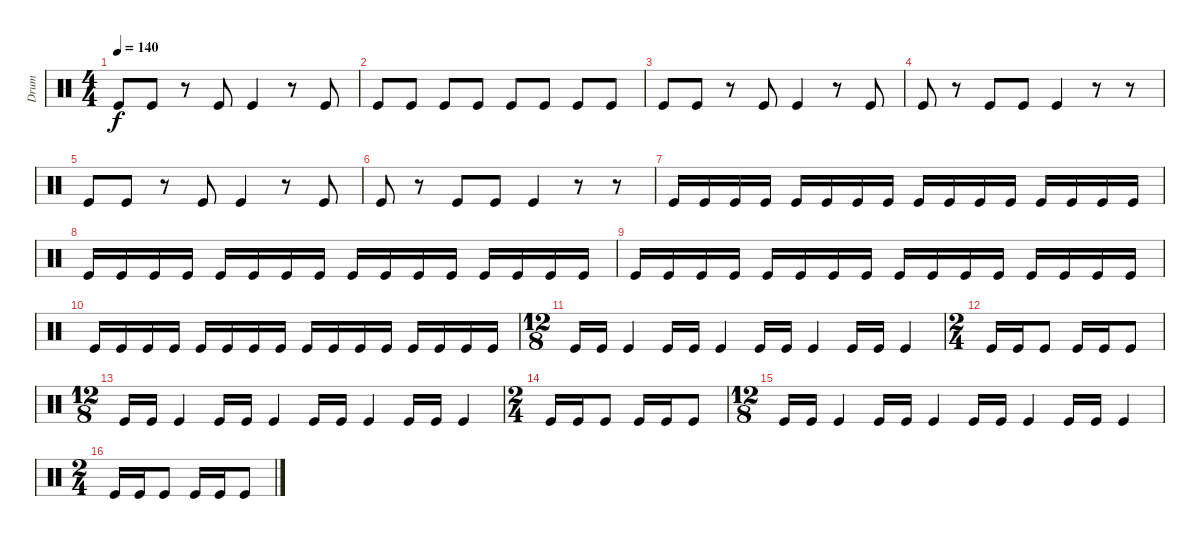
\track ("Drum" "Drum") {instrument percussion}
\staff {score}
\articulation defaults
\ts (4 4)
\tempo 140
\clef neutral
\ks c "Kick (hit)".8{dy f} "Kick (hit)".8
r.8 "Kick (hit)".8 "Kick (hit)".4 r.8 "Kick (hit)".8 |
"Kick (hit)".8 "Kick (hit)".8 "Kick (hit)".8 "Kick (hit)".8 "Kick (hit)".8 "Kick (hit)".8 "Kick (hit)".8 "Kick (hit)".8 |
"Kick (hit)".8 "Kick (hit)".8 r.8 "Kick (hit)".8 "Kick (hit)".4 r.8 "Kick (hit)".8 |
"Kick (hit)".8 r.8 "Kick (hit)".8 "Kick (hit)".8 "Kick (hit)".4 r.8 r.8 |
"Kick (hit)".8 "Kick (hit)".8 r.8 "Kick (hit)".8 "Kick (hit)".4 r.8 "Kick (hit)".8 |
"Kick (hit)".8 r.8 "Kick (hit)".8 "Kick (hit)".8 "Kick (hit)".4 r.8 r.8 |
"Kick (hit)".16 "Kick (hit)".16 "Kick (hit)".16 "Kick (hit)".16 "Kick (hit)".16 "Kick (hit)".16 "Kick (hit)".16 "Kick (hit)".16 "Kick (hit)".16 "Kick (hit)".16 "Kick (hit)".16 "Kick (hit)".16 "Kick (hit)".16 "Kick (hit)".16 "Kick (hit)".16 "Kick (hit)".16 |
"Kick (hit)".16 "Kick (hit)".16 "Kick (hit)".16 "Kick (hit)".16 "Kick (hit)".16 "Kick (hit)".16 "Kick (hit)".16 "Kick (hit)".16 "Kick (hit)".16 "Kick (hit)".16 "Kick (hit)".16 "Kick (hit)".16 "Kick (hit)".16 "Kick (hit)".16 "Kick (hit)".16 "Kick (hit)".16 |
"Kick (hit)".16 "Kick (hit)".16 "Kick (hit)".16 "Kick (hit)".16 "Kick (hit)".16 "Kick (hit)".16 "Kick (hit)".16 "Kick (hit)".16 "Kick (hit)".16 "Kick (hit)".16 "Kick (hit)".16 "Kick (hit)".16 "Kick (hit)".16 "Kick (hit)".16 "Kick (hit)".16 "Kick (hit)".16 |
"Kick (hit)".16 "Kick (hit)".16 "Kick (hit)".16 "Kick (hit)".16 "Kick (hit)".16 "Kick (hit)".16 "Kick (hit)".16 "Kick (hit)".16 "Kick (hit)".16 "Kick (hit)".16 "Kick (hit)".16 "Kick (hit)".16 "Kick (hit)".16 "Kick (hit)".16 "Kick (hit)".16 "Kick (hit)".16 |
\ts (12 8)
"Kick (hit)".16 "Kick (hit)".16 "Kick (hit)".4 "Kick (hit)".16 "Kick (hit)".16 "Kick (hit)".4 "Kick (hit)".16 "Kick (hit)".16 "Kick (hit)".4 "Kick (hit)".16 "Kick (hit)".16 "Kick (hit)".4 |
\ts (2 4)
"Kick (hit)".16 "Kick (hit)".16 "Kick (hit)".8 "Kick (hit)".16 "Kick (hit)".16 "Kick (hit)".8 |
\ts (12 8)
"Kick (hit)".16 "Kick (hit)".16 "Kick (hit)".4 "Kick (hit)".16 "Kick (hit)".16 "Kick (hit)".4 "Kick (hit)".16 "Kick (hit)".16 "Kick (hit)".4 "Kick (hit)".16 "Kick (hit)".16 "Kick (hit)".4 |
\ts (2 4)
"Kick (hit)".16 "Kick (hit)".16 "Kick (hit)".8 "Kick (hit)".16 "Kick (hit)".16 "Kick (hit)".8 |
\ts (12 8)
"Kick (hit)".16 "Kick (hit)".16 "Kick (hit)".4 "Kick (hit)".16 "Kick (hit)".16 "Kick (hit)".4 "Kick (hit)".16 "Kick (hit)".16 "Kick (hit)".4 "Kick (hit)".16 "Kick (hit)".16 "Kick (hit)".4 |
\ts (2 4)
"Kick (hit)".16 "Kick (hit)".16 "Kick (hit)".8 "Kick (hit)".16 "Kick (hit)".16 "Kick (hit)".8
